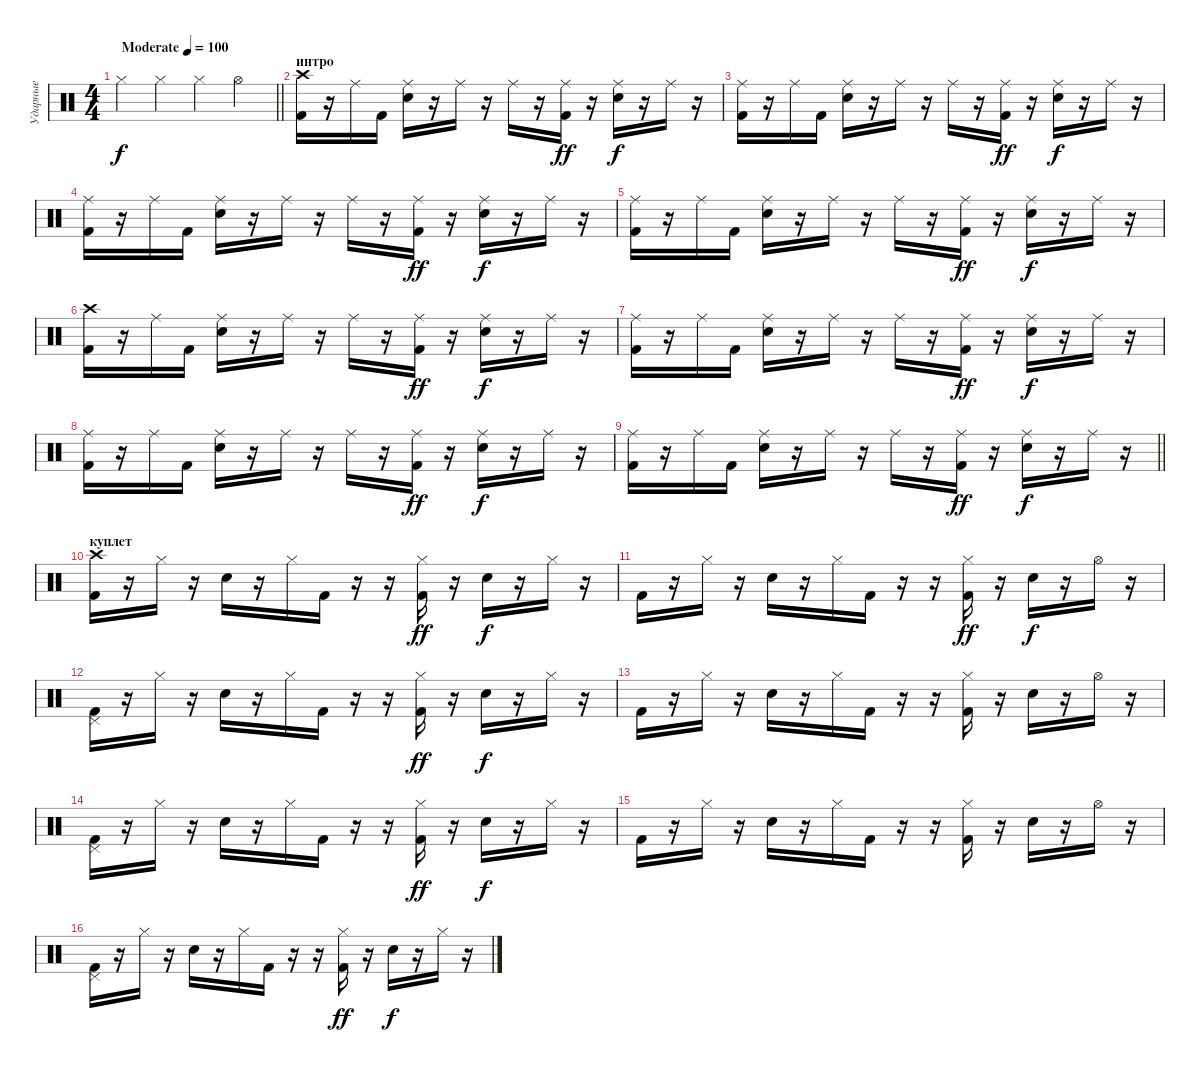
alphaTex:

\track ("Ударные" "Ударные") {instrument percussion}
\staff {score}
\articulation defaults
\ts (4 4)
\tempo (100 "Moderate")
\clef neutral
\barLineRight lightlight
\ks c "Hi-Hat (closed)".4{dy f} "Hi-Hat (closed)".4 "Hi-Hat (closed)".4 "Hi-Hat (open)".4
|
\section ("" "интро")
("Crash high (hit)" "Kick (hit) 2").16 r.16 "Ride (middle)".16 "Kick (hit) 2".16 ("Ride (middle)" "Electric Snare (hit)").16 r.16 "Ride (middle)".16 r.16 "Ride (middle)".16 r.16 ("Ride (middle)" "Kick (hit) 2").16{dy ff} r.16 ("Ride (middle)" "Electric Snare (hit)").16{dy f} r.16 "Ride (middle)".16 r.16 |
("Ride (middle)" "Kick (hit) 2").16 r.16 "Ride (middle)".16 "Kick (hit) 2".16 ("Ride (middle)" "Electric Snare (hit)").16 r.16 "Ride (middle)".16 r.16 "Ride (middle)".16 r.16 ("Ride (middle)" "Kick (hit) 2").16{dy ff} r.16 ("Ride (middle)" "Electric Snare (hit)").16{dy f} r.16 "Ride (middle)".16 r.16 |
("Ride (middle)" "Kick (hit) 2").16 r.16 "Ride (middle)".16 "Kick (hit) 2".16 ("Ride (middle)" "Electric Snare (hit)").16 r.16 "Ride (middle)".16 r.16 "Ride (middle)".16 r.16 ("Ride (middle)" "Kick (hit) 2").16{dy ff} r.16 ("Ride (middle)" "Electric Snare (hit)").16{dy f} r.16 "Ride (middle)".16 r.16 |
("Ride (middle)" "Kick (hit) 2").16 r.16 "Ride (middle)".16 "Kick (hit) 2".16 ("Ride (middle)" "Electric Snare (hit)").16 r.16 "Ride (middle)".16 r.16 "Ride (middle)".16 r.16 ("Ride (middle)" "Kick (hit) 2").16{dy ff} r.16 ("Ride (middle)" "Electric Snare (hit)").16{dy f} r.16 "Ride (middle)".16 r.16 |
("Crash high (hit)" "Kick (hit) 2").16 r.16 "Ride (middle)".16 "Kick (hit) 2".16 ("Ride (middle)" "Electric Snare (hit)").16 r.16 "Ride (middle)".16 r.16 "Ride (middle)".16 r.16 ("Ride (middle)" "Kick (hit) 2").16{dy ff} r.16 ("Ride (middle)" "Electric Snare (hit)").16{dy f} r.16 "Ride (middle)".16 r.16 |
("Ride (middle)" "Kick (hit) 2").16 r.16 "Ride (middle)".16 "Kick (hit) 2".16 ("Ride (middle)" "Electric Snare (hit)").16 r.16 "Ride (middle)".16 r.16 "Ride (middle)".16 r.16 ("Ride (middle)" "Kick (hit) 2").16{dy ff} r.16 ("Ride (middle)" "Electric Snare (hit)").16{dy f} r.16 "Ride (middle)".16 r.16 |
("Ride (middle)" "Kick (hit) 2").16 r.16 "Ride (middle)".16 "Kick (hit) 2".16 ("Ride (middle)" "Electric Snare (hit)").16 r.16 "Ride (middle)".16 r.16 "Ride (middle)".16 r.16 ("Ride (middle)" "Kick (hit) 2").16{dy ff} r.16 ("Ride (middle)" "Electric Snare (hit)").16{dy f} r.16 "Ride (middle)".16 r.16 |
\barLineRight lightlight
("Ride (middle)" "Kick (hit) 2").16 r.16 "Ride (middle)".16 "Kick (hit) 2".16 ("Ride (middle)" "Electric Snare (hit)").16 r.16 "Ride (middle)".16 r.16 "Ride (middle)".16 r.16 ("Ride (middle)" "Kick (hit) 2").16{dy ff} r.16 ("Ride (middle)" "Electric Snare (hit)").16{dy f} r.16 "Ride (middle)".16 r.16 |
\section ("" "куплет")
("Crash high (hit)" "Kick (hit) 2").16 r.16 "Hi-Hat (closed)".16 r.16 "Electric Snare (hit)".16 r.16 "Hi-Hat (closed)".16 "Kick (hit) 2".16 r.16 r.16 ("Hi-Hat (closed)" "Kick (hit) 2").16{dy ff} r.16 "Electric Snare (hit)".16{dy f} r.16 "Hi-Hat (closed)".16 r.16 |
"Kick (hit) 2".16 r.16 "Hi-Hat (closed)".16 r.16 "Electric Snare (hit)".16 r.16 "Hi-Hat (closed)".16 "Kick (hit) 2".16 r.16 r.16 ("Hi-Hat (closed)" "Kick (hit) 2").16{dy ff} r.16 "Electric Snare (hit)".16{dy f} r.16 "Hi-Hat (open)".16 r.16 |
("Pedal Hi-Hat (hit)" "Kick (hit) 2").16 r.16 "Hi-Hat (closed)".16 r.16 "Electric Snare (hit)".16 r.16 "Hi-Hat (closed)".16 "Kick (hit) 2".16 r.16 r.16 ("Hi-Hat (closed)" "Kick (hit) 2").16{dy ff} r.16 "Electric Snare (hit)".16{dy f} r.16 "Hi-Hat (closed)".16 r.16 |
"Kick (hit) 2".16 r.16 "Hi-Hat (closed)".16 r.16 "Electric Snare (hit)".16 r.16 "Hi-Hat (closed)".16 "Kick (hit) 2".16 r.16 r.16 ("Hi-Hat (closed)" "Kick (hit) 2").16 r.16 "Electric Snare (hit)".16 r.16 "Hi-Hat (open)".16 r.16 |
("Pedal Hi-Hat (hit)" "Kick (hit) 2").16 r.16 "Hi-Hat (closed)".16 r.16 "Electric Snare (hit)".16 r.16 "Hi-Hat (closed)".16 "Kick (hit) 2".16 r.16 r.16 ("Hi-Hat (closed)" "Kick (hit) 2").16{dy ff} r.16 "Electric Snare (hit)".16{dy f} r.16 "Hi-Hat (closed)".16 r.16 |
"Kick (hit) 2".16 r.16 "Hi-Hat (closed)".16 r.16 "Electric Snare (hit)".16 r.16 "Hi-Hat (closed)".16 "Kick (hit) 2".16 r.16 r.16 ("Hi-Hat (closed)" "Kick (hit) 2").16 r.16 "Electric Snare (hit)".16 r.16 "Hi-Hat (open)".16 r.16 |
("Pedal Hi-Hat (hit)" "Kick (hit) 2").16 r.16 "Hi-Hat (closed)".16 r.16 "Electric Snare (hit)".16 r.16 "Hi-Hat (closed)".16 "Kick (hit) 2".16 r.16 r.16 ("Hi-Hat (closed)" "Kick (hit) 2").16{dy ff} r.16 "Electric Snare (hit)".16{dy f} r.16 "Hi-Hat (closed)".16 r.16
